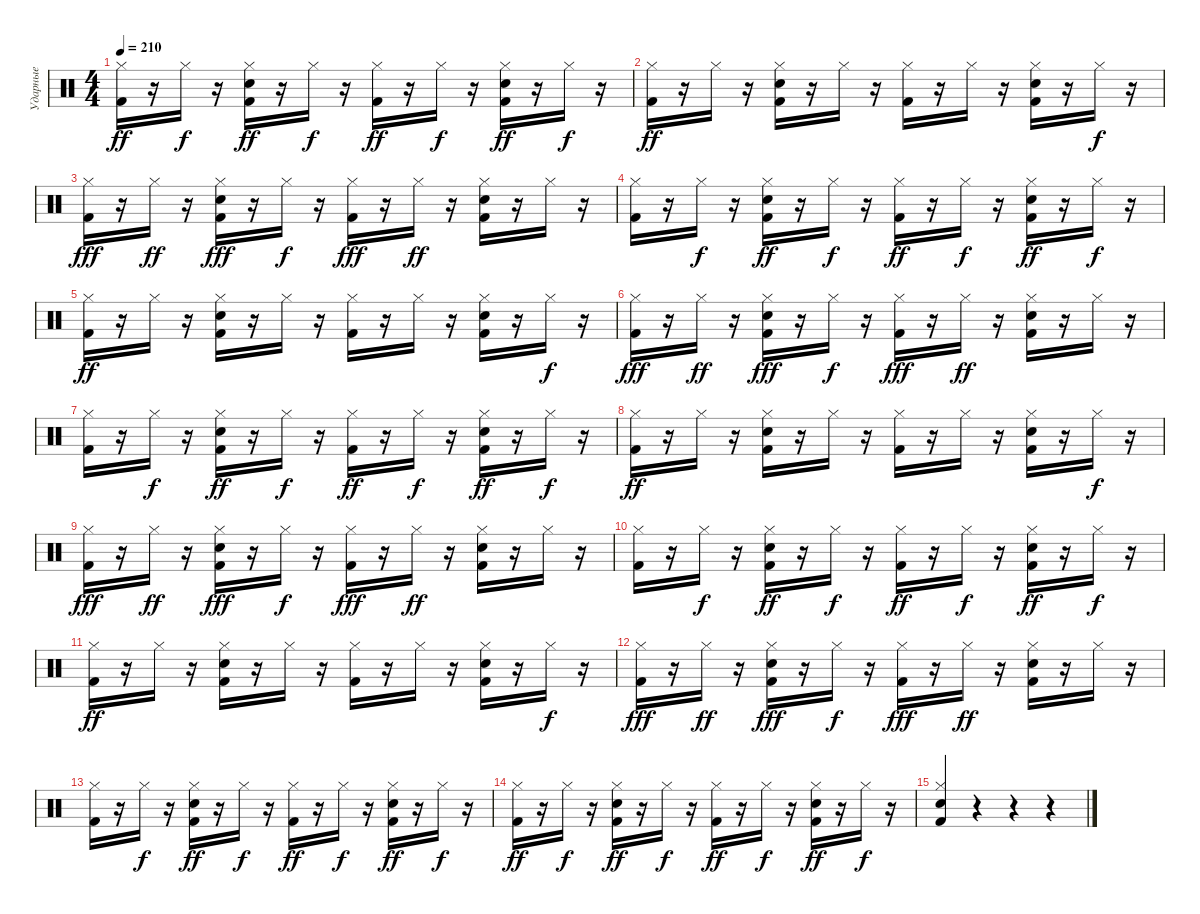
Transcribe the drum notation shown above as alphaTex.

\track ("Ударные" "Ударные") {instrument percussion}
\staff {score}
\articulation defaults
\ts (4 4)
\tempo 210
\clef neutral
\ks c
("Kick (hit) 2" "Hi-Hat (closed)").16{dy ff} r.16 "Hi-Hat (closed)".16{dy f} r.16 ("Kick (hit) 2" "Snare (hit) 2" "Hi-Hat (closed)").16{dy ff} r.16 "Hi-Hat (closed)".16{dy f} r.16 ("Kick (hit) 2" "Hi-Hat (closed)").16{dy ff} r.16 "Hi-Hat (closed)".16{dy f} r.16 ("Kick (hit) 2" "Snare (hit) 2" "Hi-Hat (closed)").16{dy ff} r.16 "Hi-Hat (closed)".16{dy f} r.16 |
("Kick (hit) 2" "Hi-Hat (closed)").16{dy ff} r.16 "Hi-Hat (closed)".16 r.16 ("Kick (hit) 2" "Snare (hit) 2" "Hi-Hat (closed)").16 r.16 "Hi-Hat (closed)".16 r.16 ("Kick (hit) 2" "Hi-Hat (closed)").16 r.16 "Hi-Hat (closed)".16 r.16 ("Kick (hit) 2" "Snare (hit) 2" "Hi-Hat (closed)").16 r.16 "Hi-Hat (closed)".16{dy f} r.16 |
("Kick (hit) 2" "Hi-Hat (closed)").16{dy fff} r.16 "Hi-Hat (closed)".16{dy ff} r.16 ("Kick (hit) 2" "Snare (hit) 2" "Hi-Hat (closed)").16{dy fff} r.16 "Hi-Hat (closed)".16{dy f} r.16 ("Kick (hit) 2" "Hi-Hat (closed)").16{dy fff} r.16 "Hi-Hat (closed)".16{dy ff} r.16 ("Kick (hit) 2" "Snare (hit) 2" "Hi-Hat (closed)").16 r.16 "Hi-Hat (closed)".16 r.16 |
("Kick (hit) 2" "Hi-Hat (closed)").16 r.16 "Hi-Hat (closed)".16{dy f} r.16 ("Kick (hit) 2" "Snare (hit) 2" "Hi-Hat (closed)").16{dy ff} r.16 "Hi-Hat (closed)".16{dy f} r.16 ("Kick (hit) 2" "Hi-Hat (closed)").16{dy ff} r.16 "Hi-Hat (closed)".16{dy f} r.16 ("Kick (hit) 2" "Snare (hit) 2" "Hi-Hat (closed)").16{dy ff} r.16 "Hi-Hat (closed)".16{dy f} r.16 |
("Kick (hit) 2" "Hi-Hat (closed)").16{dy ff} r.16 "Hi-Hat (closed)".16 r.16 ("Kick (hit) 2" "Snare (hit) 2" "Hi-Hat (closed)").16 r.16 "Hi-Hat (closed)".16 r.16 ("Kick (hit) 2" "Hi-Hat (closed)").16 r.16 "Hi-Hat (closed)".16 r.16 ("Kick (hit) 2" "Snare (hit) 2" "Hi-Hat (closed)").16 r.16 "Hi-Hat (closed)".16{dy f} r.16 |
("Kick (hit) 2" "Hi-Hat (closed)").16{dy fff} r.16 "Hi-Hat (closed)".16{dy ff} r.16 ("Kick (hit) 2" "Snare (hit) 2" "Hi-Hat (closed)").16{dy fff} r.16 "Hi-Hat (closed)".16{dy f} r.16 ("Kick (hit) 2" "Hi-Hat (closed)").16{dy fff} r.16 "Hi-Hat (closed)".16{dy ff} r.16 ("Kick (hit) 2" "Snare (hit) 2" "Hi-Hat (closed)").16 r.16 "Hi-Hat (closed)".16 r.16 |
("Kick (hit) 2" "Hi-Hat (closed)").16 r.16 "Hi-Hat (closed)".16{dy f} r.16 ("Kick (hit) 2" "Snare (hit) 2" "Hi-Hat (closed)").16{dy ff} r.16 "Hi-Hat (closed)".16{dy f} r.16 ("Kick (hit) 2" "Hi-Hat (closed)").16{dy ff} r.16 "Hi-Hat (closed)".16{dy f} r.16 ("Kick (hit) 2" "Snare (hit) 2" "Hi-Hat (closed)").16{dy ff} r.16 "Hi-Hat (closed)".16{dy f} r.16 |
("Kick (hit) 2" "Hi-Hat (closed)").16{dy ff} r.16 "Hi-Hat (closed)".16 r.16 ("Kick (hit) 2" "Snare (hit) 2" "Hi-Hat (closed)").16 r.16 "Hi-Hat (closed)".16 r.16 ("Kick (hit) 2" "Hi-Hat (closed)").16 r.16 "Hi-Hat (closed)".16 r.16 ("Kick (hit) 2" "Snare (hit) 2" "Hi-Hat (closed)").16 r.16 "Hi-Hat (closed)".16{dy f} r.16 |
("Kick (hit) 2" "Hi-Hat (closed)").16{dy fff} r.16 "Hi-Hat (closed)".16{dy ff} r.16 ("Kick (hit) 2" "Snare (hit) 2" "Hi-Hat (closed)").16{dy fff} r.16 "Hi-Hat (closed)".16{dy f} r.16 ("Kick (hit) 2" "Hi-Hat (closed)").16{dy fff} r.16 "Hi-Hat (closed)".16{dy ff} r.16 ("Kick (hit) 2" "Snare (hit) 2" "Hi-Hat (closed)").16 r.16 "Hi-Hat (closed)".16 r.16 |
("Kick (hit) 2" "Hi-Hat (closed)").16 r.16 "Hi-Hat (closed)".16{dy f} r.16 ("Kick (hit) 2" "Snare (hit) 2" "Hi-Hat (closed)").16{dy ff} r.16 "Hi-Hat (closed)".16{dy f} r.16 ("Kick (hit) 2" "Hi-Hat (closed)").16{dy ff} r.16 "Hi-Hat (closed)".16{dy f} r.16 ("Kick (hit) 2" "Snare (hit) 2" "Hi-Hat (closed)").16{dy ff} r.16 "Hi-Hat (closed)".16{dy f} r.16 |
("Kick (hit) 2" "Hi-Hat (closed)").16{dy ff} r.16 "Hi-Hat (closed)".16 r.16 ("Kick (hit) 2" "Snare (hit) 2" "Hi-Hat (closed)").16 r.16 "Hi-Hat (closed)".16 r.16 ("Kick (hit) 2" "Hi-Hat (closed)").16 r.16 "Hi-Hat (closed)".16 r.16 ("Kick (hit) 2" "Snare (hit) 2" "Hi-Hat (closed)").16 r.16 "Hi-Hat (closed)".16{dy f} r.16 |
("Kick (hit) 2" "Hi-Hat (closed)").16{dy fff} r.16 "Hi-Hat (closed)".16{dy ff} r.16 ("Kick (hit) 2" "Snare (hit) 2" "Hi-Hat (closed)").16{dy fff} r.16 "Hi-Hat (closed)".16{dy f} r.16 ("Kick (hit) 2" "Hi-Hat (closed)").16{dy fff} r.16 "Hi-Hat (closed)".16{dy ff} r.16 ("Kick (hit) 2" "Snare (hit) 2" "Hi-Hat (closed)").16 r.16 "Hi-Hat (closed)".16 r.16 |
("Kick (hit) 2" "Hi-Hat (closed)").16 r.16 "Hi-Hat (closed)".16{dy f} r.16 ("Kick (hit) 2" "Snare (hit) 2" "Hi-Hat (closed)").16{dy ff} r.16 "Hi-Hat (closed)".16{dy f} r.16 ("Kick (hit) 2" "Hi-Hat (closed)").16{dy ff} r.16 "Hi-Hat (closed)".16{dy f} r.16 ("Kick (hit) 2" "Snare (hit) 2" "Hi-Hat (closed)").16{dy ff} r.16 "Hi-Hat (closed)".16{dy f} r.16 |
("Kick (hit) 2" "Hi-Hat (closed)").16{dy ff} r.16 "Hi-Hat (closed)".16{dy f} r.16 ("Kick (hit) 2" "Snare (hit) 2" "Hi-Hat (closed)").16{dy ff} r.16 "Hi-Hat (closed)".16{dy f} r.16 ("Kick (hit) 2" "Hi-Hat (closed)").16{dy ff} r.16 "Hi-Hat (closed)".16{dy f} r.16 ("Kick (hit) 2" "Snare (hit) 2" "Hi-Hat (closed)").16{dy ff} r.16 "Hi-Hat (closed)".16{dy f} r.16 |
("Snare (hit) 2" "Kick (hit) 2" "Hi-Hat (closed)").4 r.4 r.4 r.4
